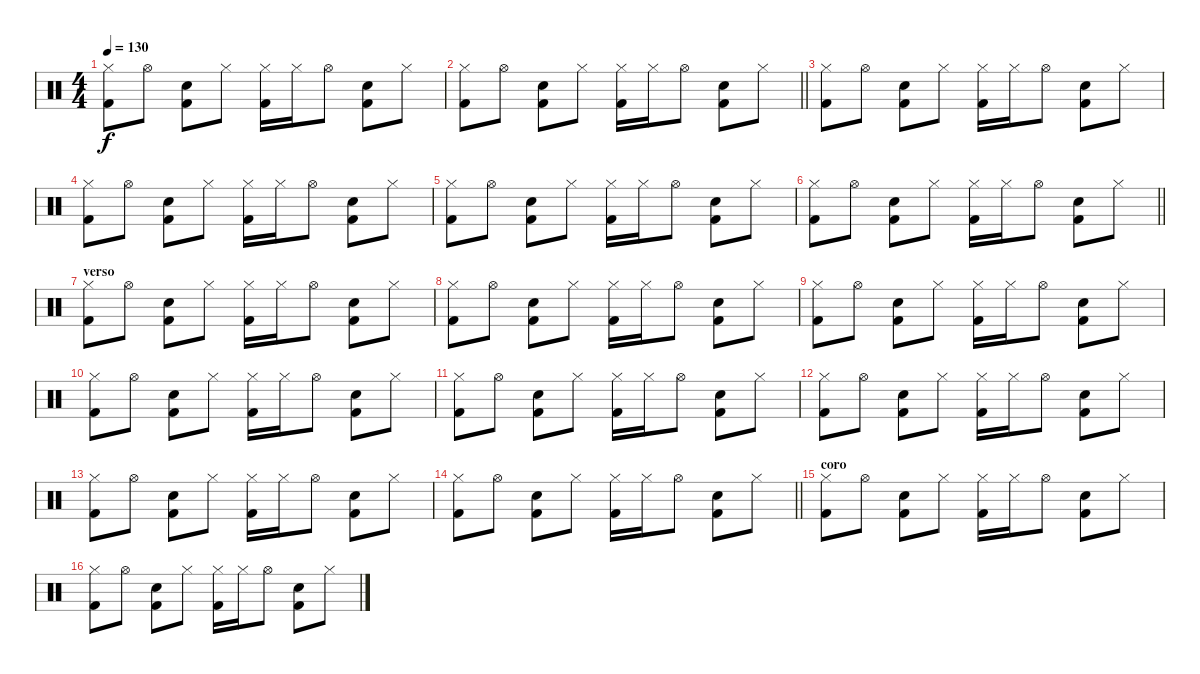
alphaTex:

\track "" {instrument percussion}
\staff {score}
\articulation defaults
\ts (4 4)
\tempo 130
\clef neutral
\ks c
("Hi-Hat (closed)" "Kick (hit) 2").8{dy f} "Hi-Hat (open)".8 ("Electric Snare (hit)" "Kick (hit) 2").8 "Hi-Hat (closed)".8 ("Hi-Hat (closed)" "Kick (hit) 2").16 "Hi-Hat (closed)".16 "Hi-Hat (open)".8 ("Electric Snare (hit)" "Kick (hit) 2").8 "Hi-Hat (closed)".8 |
\barLineRight lightlight
("Hi-Hat (closed)" "Kick (hit) 2").8 "Hi-Hat (open)".8 ("Electric Snare (hit)" "Kick (hit) 2").8 "Hi-Hat (closed)".8 ("Hi-Hat (closed)" "Kick (hit) 2").16 "Hi-Hat (closed)".16 "Hi-Hat (open)".8 ("Electric Snare (hit)" "Kick (hit) 2").8 "Hi-Hat (closed)".8 |
\section ("" "")
("Hi-Hat (closed)" "Kick (hit) 2").8 "Hi-Hat (open)".8 ("Electric Snare (hit)" "Kick (hit) 2").8 "Hi-Hat (closed)".8 ("Hi-Hat (closed)" "Kick (hit) 2").16 "Hi-Hat (closed)".16 "Hi-Hat (open)".8 ("Electric Snare (hit)" "Kick (hit) 2").8 "Hi-Hat (closed)".8 |
("Hi-Hat (closed)" "Kick (hit) 2").8 "Hi-Hat (open)".8 ("Electric Snare (hit)" "Kick (hit) 2").8 "Hi-Hat (closed)".8 ("Hi-Hat (closed)" "Kick (hit) 2").16 "Hi-Hat (closed)".16 "Hi-Hat (open)".8 ("Electric Snare (hit)" "Kick (hit) 2").8 "Hi-Hat (closed)".8 |
("Hi-Hat (closed)" "Kick (hit) 2").8 "Hi-Hat (open)".8 ("Electric Snare (hit)" "Kick (hit) 2").8 "Hi-Hat (closed)".8 ("Hi-Hat (closed)" "Kick (hit) 2").16 "Hi-Hat (closed)".16 "Hi-Hat (open)".8 ("Electric Snare (hit)" "Kick (hit) 2").8 "Hi-Hat (closed)".8 |
\barLineRight lightlight
("Hi-Hat (closed)" "Kick (hit) 2").8 "Hi-Hat (open)".8 ("Electric Snare (hit)" "Kick (hit) 2").8 "Hi-Hat (closed)".8 ("Hi-Hat (closed)" "Kick (hit) 2").16 "Hi-Hat (closed)".16 "Hi-Hat (open)".8 ("Electric Snare (hit)" "Kick (hit) 2").8 "Hi-Hat (closed)".8 |
\section ("" "verso")
("Hi-Hat (closed)" "Kick (hit) 2").8 "Hi-Hat (open)".8 ("Electric Snare (hit)" "Kick (hit) 2").8 "Hi-Hat (closed)".8 ("Hi-Hat (closed)" "Kick (hit) 2").16 "Hi-Hat (closed)".16 "Hi-Hat (open)".8 ("Electric Snare (hit)" "Kick (hit) 2").8 "Hi-Hat (closed)".8 |
("Hi-Hat (closed)" "Kick (hit) 2").8 "Hi-Hat (open)".8 ("Electric Snare (hit)" "Kick (hit) 2").8 "Hi-Hat (closed)".8 ("Hi-Hat (closed)" "Kick (hit) 2").16 "Hi-Hat (closed)".16 "Hi-Hat (open)".8 ("Electric Snare (hit)" "Kick (hit) 2").8 "Hi-Hat (closed)".8 |
("Hi-Hat (closed)" "Kick (hit) 2").8 "Hi-Hat (open)".8 ("Electric Snare (hit)" "Kick (hit) 2").8 "Hi-Hat (closed)".8 ("Hi-Hat (closed)" "Kick (hit) 2").16 "Hi-Hat (closed)".16 "Hi-Hat (open)".8 ("Electric Snare (hit)" "Kick (hit) 2").8 "Hi-Hat (closed)".8 |
("Hi-Hat (closed)" "Kick (hit) 2").8 "Hi-Hat (open)".8 ("Electric Snare (hit)" "Kick (hit) 2").8 "Hi-Hat (closed)".8 ("Hi-Hat (closed)" "Kick (hit) 2").16 "Hi-Hat (closed)".16 "Hi-Hat (open)".8 ("Electric Snare (hit)" "Kick (hit) 2").8 "Hi-Hat (closed)".8 |
("Hi-Hat (closed)" "Kick (hit) 2").8 "Hi-Hat (open)".8 ("Electric Snare (hit)" "Kick (hit) 2").8 "Hi-Hat (closed)".8 ("Hi-Hat (closed)" "Kick (hit) 2").16 "Hi-Hat (closed)".16 "Hi-Hat (open)".8 ("Electric Snare (hit)" "Kick (hit) 2").8 "Hi-Hat (closed)".8 |
("Hi-Hat (closed)" "Kick (hit) 2").8 "Hi-Hat (open)".8 ("Electric Snare (hit)" "Kick (hit) 2").8 "Hi-Hat (closed)".8 ("Hi-Hat (closed)" "Kick (hit) 2").16 "Hi-Hat (closed)".16 "Hi-Hat (open)".8 ("Electric Snare (hit)" "Kick (hit) 2").8 "Hi-Hat (closed)".8 |
("Hi-Hat (closed)" "Kick (hit) 2").8 "Hi-Hat (open)".8 ("Electric Snare (hit)" "Kick (hit) 2").8 "Hi-Hat (closed)".8 ("Hi-Hat (closed)" "Kick (hit) 2").16 "Hi-Hat (closed)".16 "Hi-Hat (open)".8 ("Electric Snare (hit)" "Kick (hit) 2").8 "Hi-Hat (closed)".8 |
\barLineRight lightlight
("Hi-Hat (closed)" "Kick (hit) 2").8 "Hi-Hat (open)".8 ("Electric Snare (hit)" "Kick (hit) 2").8 "Hi-Hat (closed)".8 ("Hi-Hat (closed)" "Kick (hit) 2").16 "Hi-Hat (closed)".16 "Hi-Hat (open)".8 ("Electric Snare (hit)" "Kick (hit) 2").8 "Hi-Hat (closed)".8 |
\section ("" "coro")
("Hi-Hat (closed)" "Kick (hit) 2").8 "Hi-Hat (open)".8 ("Electric Snare (hit)" "Kick (hit) 2").8 "Hi-Hat (closed)".8 ("Hi-Hat (closed)" "Kick (hit) 2").16 "Hi-Hat (closed)".16 "Hi-Hat (open)".8 ("Electric Snare (hit)" "Kick (hit) 2").8 "Hi-Hat (closed)".8 |
("Hi-Hat (closed)" "Kick (hit) 2").8 "Hi-Hat (open)".8 ("Electric Snare (hit)" "Kick (hit) 2").8 "Hi-Hat (closed)".8 ("Hi-Hat (closed)" "Kick (hit) 2").16 "Hi-Hat (closed)".16 "Hi-Hat (open)".8 ("Electric Snare (hit)" "Kick (hit) 2").8 "Hi-Hat (closed)".8
